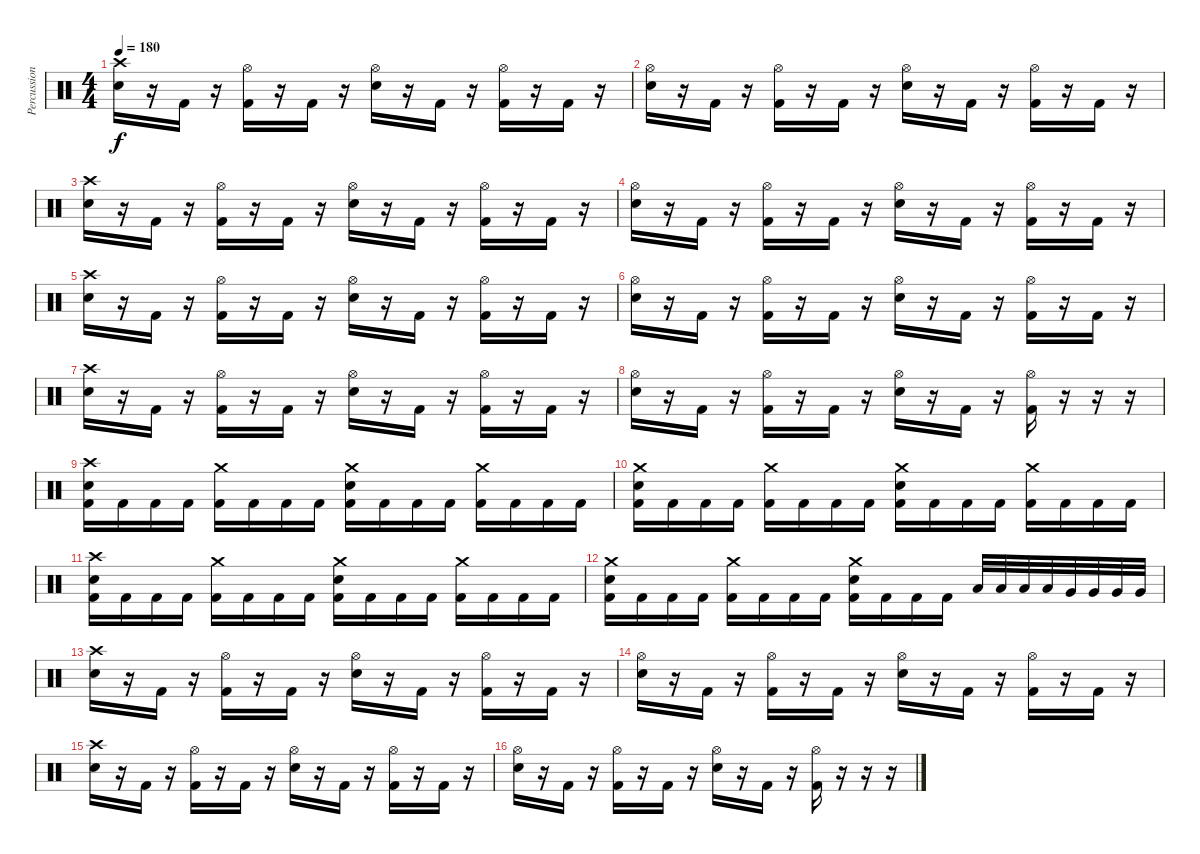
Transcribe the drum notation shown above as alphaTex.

\track ("Percussion" "Percussion") {instrument percussion}
\staff {score}
\articulation defaults
\ts (4 4)
\tempo 180
\clef neutral
\ks c
("Crash high (hit)" "Electric Snare (hit)").16{dy f} r.16 "Kick (hit) 2".16 r.16 ("Hi-Hat (open)" "Kick (hit) 2").16 r.16 "Kick (hit) 2".16 r.16 ("Hi-Hat (open)" "Electric Snare (hit)").16 r.16 "Kick (hit) 2".16 r.16 ("Hi-Hat (open)" "Kick (hit) 2").16 r.16 "Kick (hit) 2".16 r.16 |
("Hi-Hat (open)" "Electric Snare (hit)").16 r.16 "Kick (hit) 2".16 r.16 ("Hi-Hat (open)" "Kick (hit) 2").16 r.16 "Kick (hit) 2".16 r.16 ("Hi-Hat (open)" "Electric Snare (hit)").16 r.16 "Kick (hit) 2".16 r.16 ("Hi-Hat (open)" "Kick (hit) 2").16 r.16 "Kick (hit) 2".16 r.16 |
("Crash high (hit)" "Electric Snare (hit)").16 r.16 "Kick (hit) 2".16 r.16 ("Hi-Hat (open)" "Kick (hit) 2").16 r.16 "Kick (hit) 2".16 r.16 ("Hi-Hat (open)" "Electric Snare (hit)").16 r.16 "Kick (hit) 2".16 r.16 ("Hi-Hat (open)" "Kick (hit) 2").16 r.16 "Kick (hit) 2".16 r.16 |
("Hi-Hat (open)" "Electric Snare (hit)").16 r.16 "Kick (hit) 2".16 r.16 ("Hi-Hat (open)" "Kick (hit) 2").16 r.16 "Kick (hit) 2".16 r.16 ("Hi-Hat (open)" "Electric Snare (hit)").16 r.16 "Kick (hit) 2".16 r.16 ("Hi-Hat (open)" "Kick (hit) 2").16 r.16 "Kick (hit) 2".16 r.16 |
("Crash high (hit)" "Electric Snare (hit)").16 r.16 "Kick (hit) 2".16 r.16 ("Hi-Hat (open)" "Kick (hit) 2").16 r.16 "Kick (hit) 2".16 r.16 ("Hi-Hat (open)" "Electric Snare (hit)").16 r.16 "Kick (hit) 2".16 r.16 ("Hi-Hat (open)" "Kick (hit) 2").16 r.16 "Kick (hit) 2".16 r.16 |
("Hi-Hat (open)" "Electric Snare (hit)").16 r.16 "Kick (hit) 2".16 r.16 ("Hi-Hat (open)" "Kick (hit) 2").16 r.16 "Kick (hit) 2".16 r.16 ("Hi-Hat (open)" "Electric Snare (hit)").16 r.16 "Kick (hit) 2".16 r.16 ("Hi-Hat (open)" "Kick (hit) 2").16 r.16 "Kick (hit) 2".16 r.16 |
("Crash high (hit)" "Electric Snare (hit)").16 r.16 "Kick (hit) 2".16 r.16 ("Hi-Hat (open)" "Kick (hit) 2").16 r.16 "Kick (hit) 2".16 r.16 ("Hi-Hat (open)" "Electric Snare (hit)").16 r.16 "Kick (hit) 2".16 r.16 ("Hi-Hat (open)" "Kick (hit) 2").16 r.16 "Kick (hit) 2".16 r.16 |
("Hi-Hat (open)" "Electric Snare (hit)").16 r.16 "Kick (hit) 2".16 r.16 ("Hi-Hat (open)" "Kick (hit) 2").16 r.16 "Kick (hit) 2".16 r.16 ("Hi-Hat (open)" "Electric Snare (hit)").16 r.16 "Kick (hit) 2".16 r.16 ("Hi-Hat (open)" "Kick (hit) 2").16 r.16 r.16{volume 0} r.16 |
("Crash high (hit)" "Electric Snare (hit)" "Kick (hit) 2").16{volume 13} "Kick (hit) 2".16 "Kick (hit) 2".16 "Kick (hit) 2".16 ("Crash medium (hit)" "Kick (hit) 2").16 "Kick (hit) 2".16 "Kick (hit) 2".16 "Kick (hit) 2".16 ("Crash medium (hit)" "Electric Snare (hit)" "Kick (hit) 2").16 "Kick (hit) 2".16 "Kick (hit) 2".16 "Kick (hit) 2".16 ("Crash medium (hit)" "Kick (hit) 2").16 "Kick (hit) 2".16 "Kick (hit) 2".16 "Kick (hit) 2".16 |
("Crash medium (hit)" "Electric Snare (hit)" "Kick (hit) 2").16 "Kick (hit) 2".16 "Kick (hit) 2".16 "Kick (hit) 2".16 ("Crash medium (hit)" "Kick (hit) 2").16 "Kick (hit) 2".16 "Kick (hit) 2".16 "Kick (hit) 2".16 ("Crash medium (hit)" "Electric Snare (hit)" "Kick (hit) 2").16 "Kick (hit) 2".16 "Kick (hit) 2".16 "Kick (hit) 2".16 ("Crash medium (hit)" "Kick (hit) 2").16 "Kick (hit) 2".16 "Kick (hit) 2".16 "Kick (hit) 2".16 |
("Crash high (hit)" "Electric Snare (hit)" "Kick (hit) 2").16 "Kick (hit) 2".16 "Kick (hit) 2".16 "Kick (hit) 2".16 ("Crash medium (hit)" "Kick (hit) 2").16 "Kick (hit) 2".16 "Kick (hit) 2".16 "Kick (hit) 2".16 ("Crash medium (hit)" "Electric Snare (hit)" "Kick (hit) 2").16 "Kick (hit) 2".16 "Kick (hit) 2".16 "Kick (hit) 2".16 ("Crash medium (hit)" "Kick (hit) 2").16 "Kick (hit) 2".16 "Kick (hit) 2".16 "Kick (hit) 2".16 |
("Crash medium (hit)" "Electric Snare (hit)" "Kick (hit) 2").16 "Kick (hit) 2".16 "Kick (hit) 2".16 "Kick (hit) 2".16 ("Crash medium (hit)" "Kick (hit) 2").16 "Kick (hit) 2".16 "Kick (hit) 2".16 "Kick (hit) 2".16 ("Crash medium (hit)" "Electric Snare (hit)" "Kick (hit) 2").16 "Kick (hit) 2".16 "Kick (hit) 2".16 "Kick (hit) 2".16 "Low Tom (hit)".32 "Low Tom (hit)".32 "Low Tom (hit)".32 "Low Tom (hit)".32 "Very Low Tom (hit)".32 "Very Low Tom (hit)".32 "Very Low Tom (hit)".32 "Very Low Tom (hit)".32 |
("Crash high (hit)" "Electric Snare (hit)").16 r.16 "Kick (hit) 2".16 r.16 ("Hi-Hat (open)" "Kick (hit) 2").16 r.16 "Kick (hit) 2".16 r.16 ("Hi-Hat (open)" "Electric Snare (hit)").16 r.16 "Kick (hit) 2".16 r.16 ("Hi-Hat (open)" "Kick (hit) 2").16 r.16 "Kick (hit) 2".16 r.16 |
("Hi-Hat (open)" "Electric Snare (hit)").16 r.16 "Kick (hit) 2".16 r.16 ("Hi-Hat (open)" "Kick (hit) 2").16 r.16 "Kick (hit) 2".16 r.16 ("Hi-Hat (open)" "Electric Snare (hit)").16 r.16 "Kick (hit) 2".16 r.16 ("Hi-Hat (open)" "Kick (hit) 2").16 r.16 "Kick (hit) 2".16 r.16 |
("Crash high (hit)" "Electric Snare (hit)").16 r.16 "Kick (hit) 2".16 r.16 ("Hi-Hat (open)" "Kick (hit) 2").16 r.16 "Kick (hit) 2".16 r.16 ("Hi-Hat (open)" "Electric Snare (hit)").16 r.16 "Kick (hit) 2".16 r.16 ("Hi-Hat (open)" "Kick (hit) 2").16 r.16 "Kick (hit) 2".16 r.16 |
("Hi-Hat (open)" "Electric Snare (hit)").16 r.16 "Kick (hit) 2".16 r.16 ("Hi-Hat (open)" "Kick (hit) 2").16 r.16 "Kick (hit) 2".16 r.16 ("Hi-Hat (open)" "Electric Snare (hit)").16 r.16 "Kick (hit) 2".16 r.16 ("Hi-Hat (open)" "Kick (hit) 2").16 r.16 r.16 r.16
